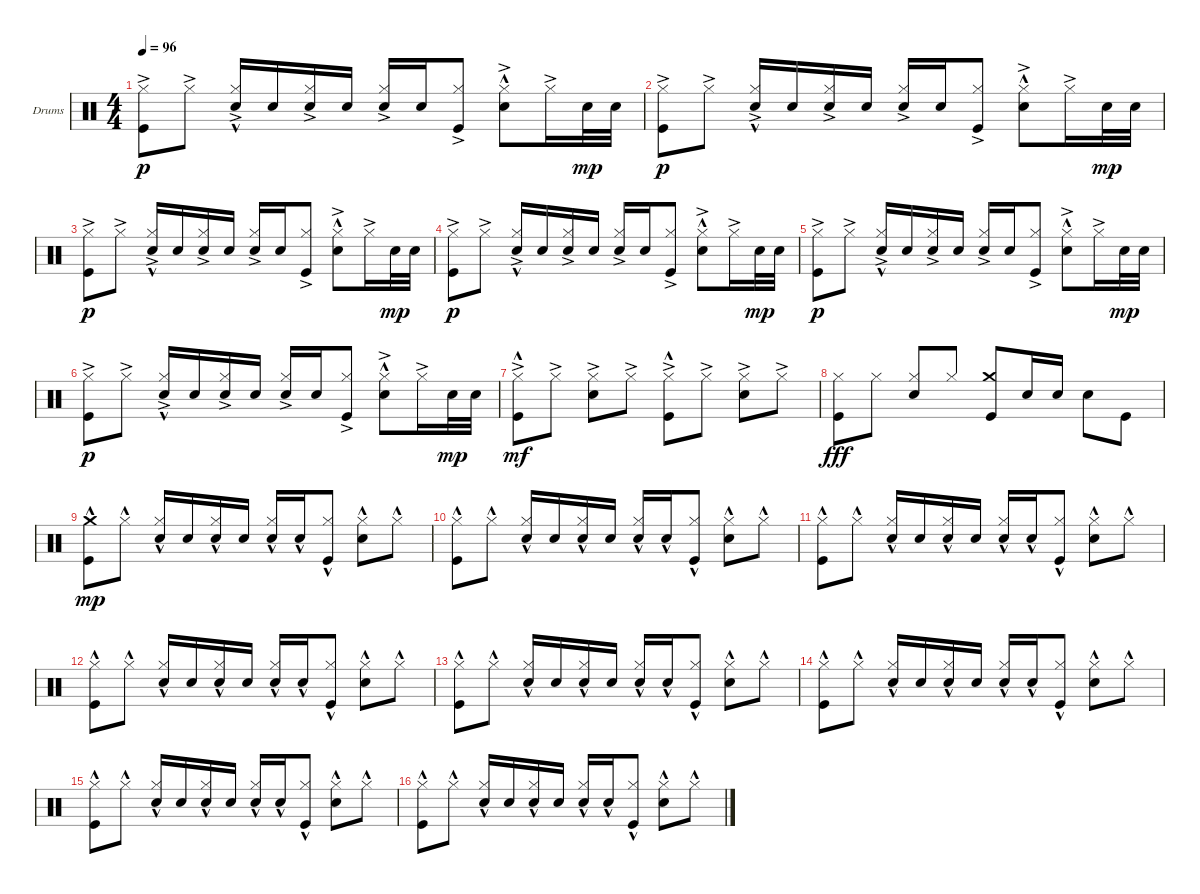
\defaultSystemsLayout 4
\bracketExtendMode groupsimilarinstruments
\firstSystemTrackNameOrientation horizontal
\otherSystemsTrackNameOrientation horizontal
\track ("Drumkit" "Drums") {instrument percussion}
\staff {score}
\articulation defaults
\ts (4 4)
\tempo 96
\clef neutral
\ks c
("Hi-Hat (closed)"{ac} "Kick (hit)"{ac}).8{dy p} "Hi-Hat (closed)"{ac}.8 ("Hi-Hat (closed)"{ac} "Snare (hit) 2"{hac}).16 "Snare (hit) 2".16 ("Snare (hit) 2" "Hi-Hat (closed)"{ac}).16 "Snare (hit) 2".16 ("Hi-Hat (closed)"{ac} "Snare (hit) 2").16{beam invert} "Snare (hit) 2".16 ("Hi-Hat (closed)"{ac} "Kick (hit)").8 ("Snare (hit) 2"{hac} "Hi-Hat (closed)"{ac}).8 "Hi-Hat (closed)"{ac}.16 "Snare (hit) 2".32{dy mp} "Snare (hit) 2".32 |
("Hi-Hat (closed)"{ac} "Kick (hit)"{ac}).8{dy p} "Hi-Hat (closed)"{ac}.8 ("Hi-Hat (closed)"{ac} "Snare (hit) 2"{hac}).16 "Snare (hit) 2".16 ("Snare (hit) 2" "Hi-Hat (closed)"{ac}).16 "Snare (hit) 2".16 ("Hi-Hat (closed)"{ac} "Snare (hit) 2").16{beam invert} "Snare (hit) 2".16 ("Hi-Hat (closed)"{ac} "Kick (hit)").8 ("Snare (hit) 2"{hac} "Hi-Hat (closed)"{ac}).8 "Hi-Hat (closed)"{ac}.16 "Snare (hit) 2".32{dy mp} "Snare (hit) 2".32 |
("Hi-Hat (closed)"{ac} "Kick (hit)"{ac}).8{dy p} "Hi-Hat (closed)"{ac}.8 ("Hi-Hat (closed)"{ac} "Snare (hit) 2"{hac}).16 "Snare (hit) 2".16 ("Snare (hit) 2" "Hi-Hat (closed)"{ac}).16 "Snare (hit) 2".16 ("Hi-Hat (closed)"{ac} "Snare (hit) 2").16{beam invert} "Snare (hit) 2".16 ("Hi-Hat (closed)"{ac} "Kick (hit)").8 ("Snare (hit) 2"{hac} "Hi-Hat (closed)"{ac}).8 "Hi-Hat (closed)"{ac}.16 "Snare (hit) 2".32{dy mp} "Snare (hit) 2".32 |
("Hi-Hat (closed)"{ac} "Kick (hit)"{ac}).8{dy p} "Hi-Hat (closed)"{ac}.8 ("Hi-Hat (closed)"{ac} "Snare (hit) 2"{hac}).16 "Snare (hit) 2".16 ("Snare (hit) 2" "Hi-Hat (closed)"{ac}).16 "Snare (hit) 2".16 ("Hi-Hat (closed)"{ac} "Snare (hit) 2").16{beam invert} "Snare (hit) 2".16 ("Hi-Hat (closed)"{ac} "Kick (hit)").8 ("Snare (hit) 2"{hac} "Hi-Hat (closed)"{ac}).8 "Hi-Hat (closed)"{ac}.16 "Snare (hit) 2".32{dy mp} "Snare (hit) 2".32 |
("Hi-Hat (closed)"{ac} "Kick (hit)"{ac}).8{dy p} "Hi-Hat (closed)"{ac}.8 ("Hi-Hat (closed)"{ac} "Snare (hit) 2"{hac}).16 "Snare (hit) 2".16 ("Snare (hit) 2" "Hi-Hat (closed)"{ac}).16 "Snare (hit) 2".16 ("Hi-Hat (closed)"{ac} "Snare (hit) 2").16{beam invert} "Snare (hit) 2".16 ("Hi-Hat (closed)"{ac} "Kick (hit)").8 ("Snare (hit) 2"{hac} "Hi-Hat (closed)"{ac}).8 "Hi-Hat (closed)"{ac}.16 "Snare (hit) 2".32{dy mp} "Snare (hit) 2".32 |
("Hi-Hat (closed)"{ac} "Kick (hit)"{ac}).8{dy p} "Hi-Hat (closed)"{ac}.8 ("Hi-Hat (closed)"{ac} "Snare (hit) 2"{hac}).16 "Snare (hit) 2".16 ("Snare (hit) 2" "Hi-Hat (closed)"{ac}).16 "Snare (hit) 2".16 ("Hi-Hat (closed)"{ac} "Snare (hit) 2").16{beam invert} "Snare (hit) 2".16 ("Hi-Hat (closed)"{ac} "Kick (hit)").8 ("Snare (hit) 2"{hac} "Hi-Hat (closed)"{ac}).8 "Hi-Hat (closed)"{ac}.16 "Snare (hit) 2".32{dy mp} "Snare (hit) 2".32 |
("Hi-Hat (closed)"{ac} "Kick (hit)"{hac}).8{dy mf} "Hi-Hat (closed)"{ac}.8 ("Hi-Hat (closed)"{ac} "Snare (hit) 2").8 "Hi-Hat (closed)"{ac}.8 ("Hi-Hat (closed)"{ac} "Kick (hit)"{hac}).8 "Hi-Hat (closed)"{ac}.8 ("Hi-Hat (closed)"{ac} "Snare (hit) 2").8 "Hi-Hat (closed)"{ac}.8 |
("Kick (hit)" "Hi-Hat (closed)").8{dy fff} "Hi-Hat (closed)".8 ("Hi-Hat (closed)" "Snare (hit) 2").8 "Hi-Hat (closed)".8 ("Crash medium (hit)" "Kick (hit)").8{beam invert} "Snare (hit) 2".16 "Snare (hit) 2".16 "Snare (hit) 2".8{beam invert} "Kick (hit)".8 |
("Crash medium (hit)"{hac} "Kick (hit)"{hac}).8{dy mp} "Hi-Hat (closed)"{hac}.8 ("Hi-Hat (closed)"{hac} "Snare (hit) 2"{hac}).16 "Snare (hit) 2".16 ("Snare (hit) 2" "Hi-Hat (closed)"{hac}).16 "Snare (hit) 2".16 ("Hi-Hat (closed)"{hac} "Snare (hit) 2").16{beam invert} "Snare (hit) 2"{hac}.16 ("Hi-Hat (closed)"{hac} "Kick (hit)"{hac}).8 ("Snare (hit) 2"{hac} "Hi-Hat (closed)"{hac}).8 "Hi-Hat (closed)"{hac}.8 |
("Kick (hit)"{hac} "Hi-Hat (closed)"{hac}).8 "Hi-Hat (closed)"{hac}.8 ("Hi-Hat (closed)"{hac} "Snare (hit) 2"{hac}).16 "Snare (hit) 2".16 ("Snare (hit) 2" "Hi-Hat (closed)"{hac}).16 "Snare (hit) 2".16 ("Hi-Hat (closed)"{hac} "Snare (hit) 2").16{beam invert} "Snare (hit) 2"{hac}.16 ("Hi-Hat (closed)"{hac} "Kick (hit)"{hac}).8 ("Snare (hit) 2"{hac} "Hi-Hat (closed)"{hac}).8 "Hi-Hat (closed)"{hac}.8 |
("Kick (hit)"{hac} "Hi-Hat (closed)"{hac}).8 "Hi-Hat (closed)"{hac}.8 ("Hi-Hat (closed)"{hac} "Snare (hit) 2"{hac}).16 "Snare (hit) 2".16 ("Snare (hit) 2" "Hi-Hat (closed)"{hac}).16 "Snare (hit) 2".16 ("Hi-Hat (closed)"{hac} "Snare (hit) 2").16{beam invert} "Snare (hit) 2"{hac}.16 ("Hi-Hat (closed)"{hac} "Kick (hit)"{hac}).8 ("Snare (hit) 2"{hac} "Hi-Hat (closed)"{hac}).8 "Hi-Hat (closed)"{hac}.8 |
("Kick (hit)"{hac} "Hi-Hat (closed)"{hac}).8 "Hi-Hat (closed)"{hac}.8 ("Hi-Hat (closed)"{hac} "Snare (hit) 2"{hac}).16 "Snare (hit) 2".16 ("Snare (hit) 2" "Hi-Hat (closed)"{hac}).16 "Snare (hit) 2".16 ("Hi-Hat (closed)"{hac} "Snare (hit) 2").16{beam invert} "Snare (hit) 2"{hac}.16 ("Hi-Hat (closed)"{hac} "Kick (hit)"{hac}).8 ("Snare (hit) 2"{hac} "Hi-Hat (closed)"{hac}).8 "Hi-Hat (closed)"{hac}.8 |
("Kick (hit)"{hac} "Hi-Hat (closed)"{hac}).8 "Hi-Hat (closed)"{hac}.8 ("Hi-Hat (closed)"{hac} "Snare (hit) 2"{hac}).16 "Snare (hit) 2".16 ("Snare (hit) 2" "Hi-Hat (closed)"{hac}).16 "Snare (hit) 2".16 ("Hi-Hat (closed)"{hac} "Snare (hit) 2").16{beam invert} "Snare (hit) 2"{hac}.16 ("Hi-Hat (closed)"{hac} "Kick (hit)"{hac}).8 ("Snare (hit) 2"{hac} "Hi-Hat (closed)"{hac}).8 "Hi-Hat (closed)"{hac}.8 |
("Kick (hit)"{hac} "Hi-Hat (closed)"{hac}).8 "Hi-Hat (closed)"{hac}.8 ("Hi-Hat (closed)"{hac} "Snare (hit) 2"{hac}).16 "Snare (hit) 2".16 ("Snare (hit) 2" "Hi-Hat (closed)"{hac}).16 "Snare (hit) 2".16 ("Hi-Hat (closed)"{hac} "Snare (hit) 2").16{beam invert} "Snare (hit) 2"{hac}.16 ("Hi-Hat (closed)"{hac} "Kick (hit)"{hac}).8 ("Snare (hit) 2"{hac} "Hi-Hat (closed)"{hac}).8 "Hi-Hat (closed)"{hac}.8 |
("Kick (hit)"{hac} "Hi-Hat (closed)"{hac}).8 "Hi-Hat (closed)"{hac}.8 ("Hi-Hat (closed)"{hac} "Snare (hit) 2"{hac}).16 "Snare (hit) 2".16 ("Snare (hit) 2" "Hi-Hat (closed)"{hac}).16 "Snare (hit) 2".16 ("Hi-Hat (closed)"{hac} "Snare (hit) 2").16{beam invert} "Snare (hit) 2"{hac}.16 ("Hi-Hat (closed)"{hac} "Kick (hit)"{hac}).8 ("Snare (hit) 2"{hac} "Hi-Hat (closed)"{hac}).8 "Hi-Hat (closed)"{hac}.8 |
("Kick (hit)"{hac} "Hi-Hat (closed)"{hac}).8 "Hi-Hat (closed)"{hac}.8 ("Hi-Hat (closed)"{hac} "Snare (hit) 2"{hac}).16 "Snare (hit) 2".16 ("Snare (hit) 2" "Hi-Hat (closed)"{hac}).16 "Snare (hit) 2".16 ("Hi-Hat (closed)"{hac} "Snare (hit) 2").16{beam invert} "Snare (hit) 2"{hac}.16 ("Hi-Hat (closed)"{hac} "Kick (hit)"{hac}).8 ("Snare (hit) 2"{hac} "Hi-Hat (closed)"{hac}).8 "Hi-Hat (closed)"{hac}.8
